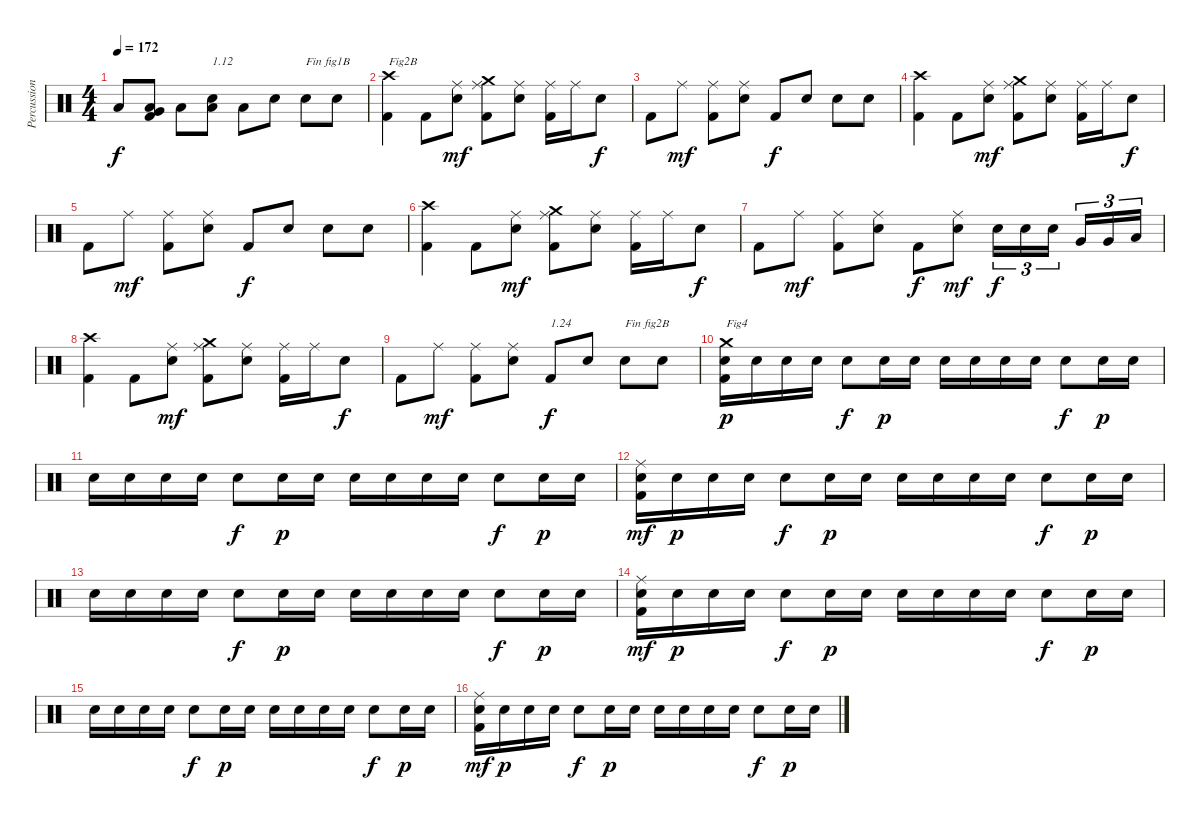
\track ("Percussions" "Percussion") {instrument percussion}
\staff {score}
\articulation defaults
\ts (4 4)
\tempo 172
\clef neutral
\ks c "Low Floor Tom (hit)".8{dy f}
("Kick (hit) 2" "Low Floor Tom (hit)" "Very Low Tom (hit)").8 "Low Floor Tom (hit)".8 ("Electric Snare (hit)" "Low Floor Tom (hit)").8{txt "1.12"} "Low Floor Tom (hit)".8 "Electric Snare (hit)".8 "Electric Snare (hit)".8{txt "Fin fig1B"} "Electric Snare (hit)".8 |
("Kick (hit) 2" "Crash high (hit)").4{txt "Fig2B"} "Kick (hit) 2".8 ("Electric Snare (hit)" "Ride (middle)").8{dy mf} ("Kick (hit) 2" "Ride (middle)" "Crash medium (hit)").8 ("Electric Snare (hit)" "Ride (middle)").8 ("Kick (hit) 2" "Ride (middle)").16 "Ride (middle)".16 "Electric Snare (hit)".8{dy f} |
"Kick (hit) 2".8 "Ride (middle)".8{dy mf} ("Kick (hit) 2" "Ride (middle)").8 ("Electric Snare (hit)" "Ride (middle)").8 "Kick (hit) 2".8{dy f} "Electric Snare (hit)".8 "Electric Snare (hit)".8 "Electric Snare (hit)".8 |
("Kick (hit) 2" "Crash high (hit)").4 "Kick (hit) 2".8 ("Electric Snare (hit)" "Ride (middle)").8{dy mf} ("Kick (hit) 2" "Ride (middle)" "Crash medium (hit)").8 ("Electric Snare (hit)" "Ride (middle)").8 ("Kick (hit) 2" "Ride (middle)").16 "Ride (middle)".16 "Electric Snare (hit)".8{dy f} |
"Kick (hit) 2".8 "Ride (middle)".8{dy mf} ("Kick (hit) 2" "Ride (middle)").8 ("Electric Snare (hit)" "Ride (middle)").8 "Kick (hit) 2".8{dy f} "Electric Snare (hit)".8 "Electric Snare (hit)".8 "Electric Snare (hit)".8 |
("Kick (hit) 2" "Crash high (hit)").4 "Kick (hit) 2".8 ("Electric Snare (hit)" "Ride (middle)").8{dy mf} ("Kick (hit) 2" "Ride (middle)" "Crash medium (hit)").8 ("Electric Snare (hit)" "Ride (middle)").8 ("Kick (hit) 2" "Ride (middle)").16 "Ride (middle)".16 "Electric Snare (hit)".8{dy f} |
"Kick (hit) 2".8 "Ride (middle)".8{dy mf} ("Kick (hit) 2" "Ride (middle)").8 ("Electric Snare (hit)" "Ride (middle)").8 "Kick (hit) 2".8{dy f} ("Electric Snare (hit)" "Ride (middle)").8{dy mf} "Electric Snare (hit)".16{tu (3 2) dy f} "Electric Snare (hit)".16{tu (3 2)} "Electric Snare (hit)".16{tu (3 2)} "Very Low Tom (hit)".16{tu (3 2)} "Very Low Tom (hit)".16{tu (3 2)} "Low Floor Tom (hit)".16{tu (3 2)} |
("Kick (hit) 2" "Crash high (hit)").4 "Kick (hit) 2".8 ("Electric Snare (hit)" "Ride (middle)").8{dy mf} ("Kick (hit) 2" "Ride (middle)" "Crash medium (hit)").8 ("Electric Snare (hit)" "Ride (middle)").8 ("Kick (hit) 2" "Ride (middle)").16 "Ride (middle)".16 "Electric Snare (hit)".8{dy f} |
"Kick (hit) 2".8 "Ride (middle)".8{dy mf} ("Kick (hit) 2" "Ride (middle)").8 ("Electric Snare (hit)" "Ride (middle)").8 "Kick (hit) 2".8{txt "1.24" dy f} "Electric Snare (hit)".8 "Electric Snare (hit)".8{txt "Fin fig2B"} "Electric Snare (hit)".8 |
("Kick (hit) 2" "Electric Snare (hit)" "Crash medium (hit)").16{txt "Fig4" dy p} "Electric Snare (hit)".16 "Electric Snare (hit)".16 "Electric Snare (hit)".16 "Electric Snare (hit)".8{dy f} "Electric Snare (hit)".16{dy p} "Electric Snare (hit)".16 "Electric Snare (hit)".16 "Electric Snare (hit)".16 "Electric Snare (hit)".16 "Electric Snare (hit)".16 "Electric Snare (hit)".8{dy f} "Electric Snare (hit)".16{dy p} "Electric Snare (hit)".16 |
"Electric Snare (hit)".16 "Electric Snare (hit)".16 "Electric Snare (hit)".16 "Electric Snare (hit)".16 "Electric Snare (hit)".8{dy f} "Electric Snare (hit)".16{dy p} "Electric Snare (hit)".16 "Electric Snare (hit)".16 "Electric Snare (hit)".16 "Electric Snare (hit)".16 "Electric Snare (hit)".16 "Electric Snare (hit)".8{dy f} "Electric Snare (hit)".16{dy p} "Electric Snare (hit)".16 |
("Kick (hit) 2" "Electric Snare (hit)" "Ride (middle)").16{dy mf} "Electric Snare (hit)".16{dy p} "Electric Snare (hit)".16 "Electric Snare (hit)".16 "Electric Snare (hit)".8{dy f} "Electric Snare (hit)".16{dy p} "Electric Snare (hit)".16 "Electric Snare (hit)".16 "Electric Snare (hit)".16 "Electric Snare (hit)".16 "Electric Snare (hit)".16 "Electric Snare (hit)".8{dy f} "Electric Snare (hit)".16{dy p} "Electric Snare (hit)".16 |
"Electric Snare (hit)".16 "Electric Snare (hit)".16 "Electric Snare (hit)".16 "Electric Snare (hit)".16 "Electric Snare (hit)".8{dy f} "Electric Snare (hit)".16{dy p} "Electric Snare (hit)".16 "Electric Snare (hit)".16 "Electric Snare (hit)".16 "Electric Snare (hit)".16 "Electric Snare (hit)".16 "Electric Snare (hit)".8{dy f} "Electric Snare (hit)".16{dy p} "Electric Snare (hit)".16 |
("Kick (hit) 2" "Electric Snare (hit)" "Ride (middle)").16{dy mf} "Electric Snare (hit)".16{dy p} "Electric Snare (hit)".16 "Electric Snare (hit)".16 "Electric Snare (hit)".8{dy f} "Electric Snare (hit)".16{dy p} "Electric Snare (hit)".16 "Electric Snare (hit)".16 "Electric Snare (hit)".16 "Electric Snare (hit)".16 "Electric Snare (hit)".16 "Electric Snare (hit)".8{dy f} "Electric Snare (hit)".16{dy p} "Electric Snare (hit)".16 |
"Electric Snare (hit)".16 "Electric Snare (hit)".16 "Electric Snare (hit)".16 "Electric Snare (hit)".16 "Electric Snare (hit)".8{dy f} "Electric Snare (hit)".16{dy p} "Electric Snare (hit)".16 "Electric Snare (hit)".16 "Electric Snare (hit)".16 "Electric Snare (hit)".16 "Electric Snare (hit)".16 "Electric Snare (hit)".8{dy f} "Electric Snare (hit)".16{dy p} "Electric Snare (hit)".16 |
("Kick (hit) 2" "Electric Snare (hit)" "Ride (middle)").16{dy mf} "Electric Snare (hit)".16{dy p} "Electric Snare (hit)".16 "Electric Snare (hit)".16 "Electric Snare (hit)".8{dy f} "Electric Snare (hit)".16{dy p} "Electric Snare (hit)".16 "Electric Snare (hit)".16 "Electric Snare (hit)".16 "Electric Snare (hit)".16 "Electric Snare (hit)".16 "Electric Snare (hit)".8{dy f} "Electric Snare (hit)".16{dy p} "Electric Snare (hit)".16
